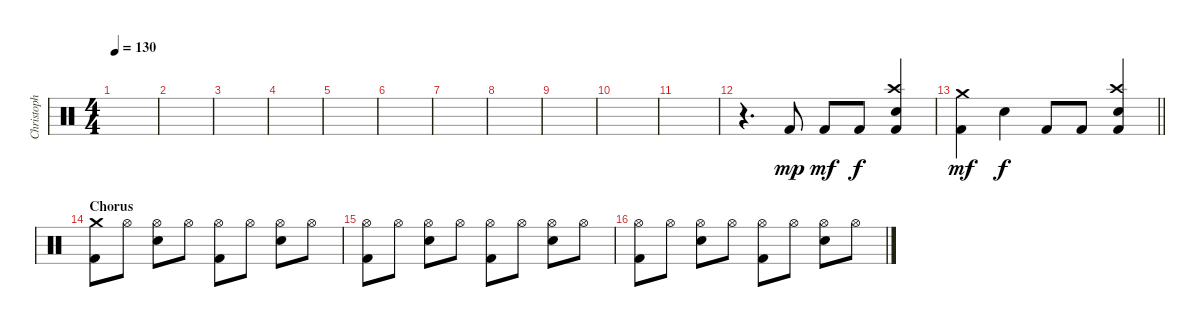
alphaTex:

\track ("Christoph \"Doom\" Schneider" "Christoph ") {instrument percussion}
\staff {score}
\articulation defaults
\ts (4 4)
\tempo 130
\clef neutral
\ks c
|
|
|
|
|
|
|
|
|
|
|
r.4{d} "Kick (hit) 2".8{dy mp} "Kick (hit) 2".8{dy mf} "Kick (hit) 2".8{dy f} ("Crash high (hit)" "Electric Snare (hit)" "Kick (hit) 2").4 |
\barLineRight lightlight
("Crash medium (hit)" "Kick (hit) 2").4{dy mf} "Electric Snare (hit)".4{dy f} "Kick (hit) 2".8 "Kick (hit) 2".8 ("Crash high (hit)" "Electric Snare (hit)" "Kick (hit) 2").4 |
\section ("" "Chorus")
("Crash medium (hit)" "Kick (hit) 2").8 "Hi-Hat (open)".8 ("Hi-Hat (open)" "Electric Snare (hit)").8 "Hi-Hat (open)".8 ("Hi-Hat (open)" "Kick (hit) 2").8 "Hi-Hat (open)".8 ("Hi-Hat (open)" "Electric Snare (hit)").8 "Hi-Hat (open)".8 |
("Hi-Hat (open)" "Kick (hit) 2").8 "Hi-Hat (open)".8 ("Hi-Hat (open)" "Electric Snare (hit)").8 "Hi-Hat (open)".8 ("Hi-Hat (open)" "Kick (hit) 2").8 "Hi-Hat (open)".8 ("Hi-Hat (open)" "Electric Snare (hit)").8 "Hi-Hat (open)".8 |
("Hi-Hat (open)" "Kick (hit) 2").8 "Hi-Hat (open)".8 ("Hi-Hat (open)" "Electric Snare (hit)").8 "Hi-Hat (open)".8 ("Hi-Hat (open)" "Kick (hit) 2").8 "Hi-Hat (open)".8 ("Hi-Hat (open)" "Electric Snare (hit)").8 "Hi-Hat (open)".8
